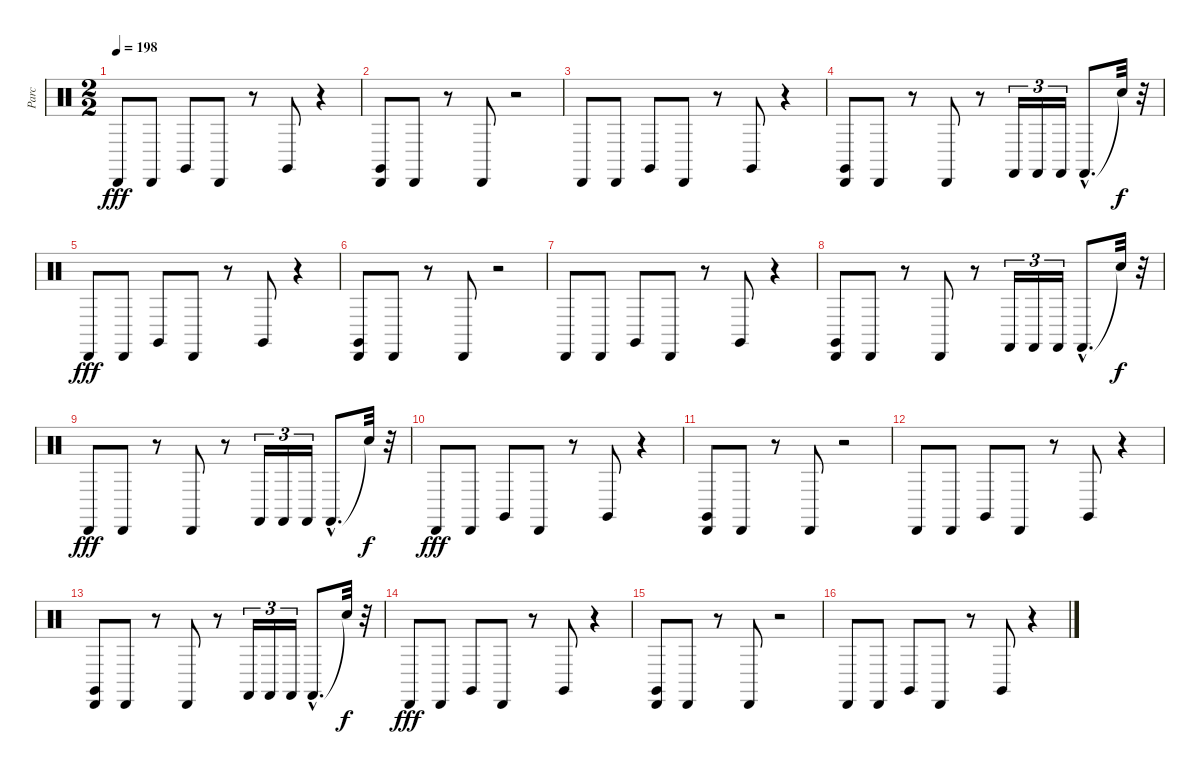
\track ("Parc" "Parc") {instrument percussion}
\staff {score}
\articulation defaults
\ts (2 2)
\tempo 198
\clef neutral
\ks c "Cabasa (hit)".8{dy fff} "Cabasa (hit)".8 "Claves (hit)".8 "Cabasa (hit)".8
r.8 "Claves (hit)".8 r.4 |
("Cabasa (hit)" "Claves (hit)").8 "Cabasa (hit)".8 r.8 "Cabasa (hit)".8 r.2 |
"Cabasa (hit)".8 "Cabasa (hit)".8 "Claves (hit)".8 "Cabasa (hit)".8 r.8 "Claves (hit)".8 r.4 |
("Cabasa (hit)" "Claves (hit)").8 "Cabasa (hit)".8 r.8 "Cabasa (hit)".8 r.8 "Castanets (hit)".16{tu (3 2)} "Castanets (hit)".16{tu (3 2)} "Castanets (hit)".16{tu (3 2)} "Castanets (hit)"{hac}.8{d} "Snare (hit)"{t}.32{dy f} r.32 |
"Cabasa (hit)".8{dy fff} "Cabasa (hit)".8 "Claves (hit)".8 "Cabasa (hit)".8 r.8 "Claves (hit)".8 r.4 |
("Cabasa (hit)" "Claves (hit)").8 "Cabasa (hit)".8 r.8 "Cabasa (hit)".8 r.2 |
"Cabasa (hit)".8 "Cabasa (hit)".8 "Claves (hit)".8 "Cabasa (hit)".8 r.8 "Claves (hit)".8 r.4 |
("Cabasa (hit)" "Claves (hit)").8 "Cabasa (hit)".8 r.8 "Cabasa (hit)".8 r.8 "Castanets (hit)".16{tu (3 2)} "Castanets (hit)".16{tu (3 2)} "Castanets (hit)".16{tu (3 2)} "Castanets (hit)"{hac}.8{d} "Snare (hit)"{t}.32{dy f} r.32 |
"Cabasa (hit)".8{dy fff} "Cabasa (hit)".8 r.8 "Cabasa (hit)".8 r.8 "Castanets (hit)".16{tu (3 2)} "Castanets (hit)".16{tu (3 2)} "Castanets (hit)".16{tu (3 2)} "Castanets (hit)"{hac}.8{d} "Snare (hit)"{t}.32{dy f} r.32 |
"Cabasa (hit)".8{dy fff} "Cabasa (hit)".8 "Claves (hit)".8 "Cabasa (hit)".8 r.8 "Claves (hit)".8 r.4 |
("Cabasa (hit)" "Claves (hit)").8 "Cabasa (hit)".8 r.8 "Cabasa (hit)".8 r.2 |
"Cabasa (hit)".8 "Cabasa (hit)".8 "Claves (hit)".8 "Cabasa (hit)".8 r.8 "Claves (hit)".8 r.4 |
("Cabasa (hit)" "Claves (hit)").8 "Cabasa (hit)".8 r.8 "Cabasa (hit)".8 r.8 "Castanets (hit)".16{tu (3 2)} "Castanets (hit)".16{tu (3 2)} "Castanets (hit)".16{tu (3 2)} "Castanets (hit)"{hac}.8{d} "Snare (hit)"{t}.32{dy f} r.32 |
"Cabasa (hit)".8{dy fff} "Cabasa (hit)".8 "Claves (hit)".8 "Cabasa (hit)".8 r.8 "Claves (hit)".8 r.4 |
("Cabasa (hit)" "Claves (hit)").8 "Cabasa (hit)".8 r.8 "Cabasa (hit)".8 r.2 |
"Cabasa (hit)".8 "Cabasa (hit)".8 "Claves (hit)".8 "Cabasa (hit)".8 r.8 "Claves (hit)".8 r.4
